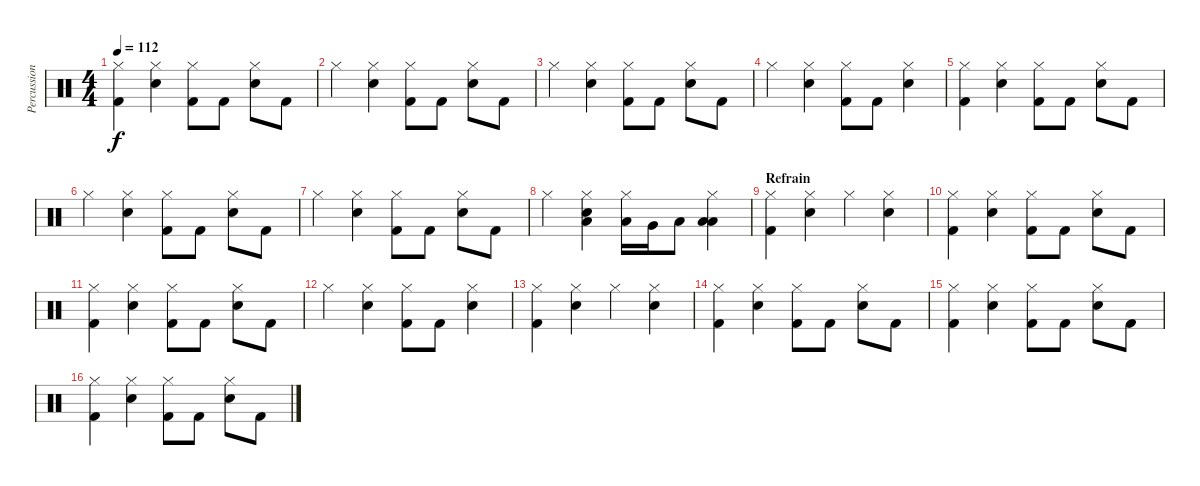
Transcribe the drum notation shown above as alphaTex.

\track ("Percussions" "Percussion") {instrument percussion}
\staff {score}
\articulation defaults
\ts (4 4)
\tempo 112
\clef neutral
\ks c
("Hi-Hat (closed)" "Kick (hit) 2").4{dy f} ("Hi-Hat (closed)" "Snare (hit) 2").4 ("Hi-Hat (closed)" "Kick (hit) 2").8 "Kick (hit) 2".8 ("Hi-Hat (closed)" "Snare (hit) 2").8 "Kick (hit) 2".8 |
"Hi-Hat (closed)".4 ("Hi-Hat (closed)" "Snare (hit) 2").4 ("Hi-Hat (closed)" "Kick (hit) 2").8 "Kick (hit) 2".8 ("Hi-Hat (closed)" "Snare (hit) 2").8 "Kick (hit) 2".8 |
"Hi-Hat (closed)".4 ("Hi-Hat (closed)" "Snare (hit) 2").4 ("Hi-Hat (closed)" "Kick (hit) 2").8 "Kick (hit) 2".8 ("Hi-Hat (closed)" "Snare (hit) 2").8 "Kick (hit) 2".8 |
"Hi-Hat (closed)".4 ("Hi-Hat (closed)" "Snare (hit) 2").4 ("Hi-Hat (closed)" "Kick (hit) 2").8 "Kick (hit) 2".8 ("Hi-Hat (closed)" "Snare (hit) 2").4 |
("Hi-Hat (closed)" "Kick (hit) 2").4 ("Hi-Hat (closed)" "Snare (hit) 2").4 ("Hi-Hat (closed)" "Kick (hit) 2").8 "Kick (hit) 2".8 ("Hi-Hat (closed)" "Snare (hit) 2").8 "Kick (hit) 2".8 |
"Hi-Hat (closed)".4 ("Hi-Hat (closed)" "Snare (hit) 2").4 ("Hi-Hat (closed)" "Kick (hit) 2").8 "Kick (hit) 2".8 ("Hi-Hat (closed)" "Snare (hit) 2").8 "Kick (hit) 2".8 |
"Hi-Hat (closed)".4 ("Hi-Hat (closed)" "Snare (hit) 2").4 ("Hi-Hat (closed)" "Kick (hit) 2").8 "Kick (hit) 2".8 ("Hi-Hat (closed)" "Snare (hit) 2").8 "Kick (hit) 2".8 |
"Hi-Hat (closed)".4 ("Hi-Hat (closed)" "Snare (hit) 2" "Low Floor Tom (hit)").4 ("Hi-Hat (closed)" "Low Tom (hit)").16 "Very Low Tom (hit)".16 "Low Floor Tom (hit)".8 ("Hi-Hat (closed)" "Low Tom (hit)" "Low Floor Tom (hit)").4 |
\section ("" "Refrain")
("Hi-Hat (closed)" "Kick (hit) 2").4 ("Hi-Hat (closed)" "Snare (hit) 2").4 "Hi-Hat (closed)".4 ("Hi-Hat (closed)" "Snare (hit) 2").4 |
("Hi-Hat (closed)" "Kick (hit) 2").4 ("Hi-Hat (closed)" "Snare (hit) 2").4 ("Hi-Hat (closed)" "Kick (hit) 2").8 "Kick (hit) 2".8 ("Hi-Hat (closed)" "Snare (hit) 2").8 "Kick (hit) 2".8 |
("Hi-Hat (closed)" "Kick (hit) 2").4 ("Hi-Hat (closed)" "Snare (hit) 2").4 ("Hi-Hat (closed)" "Kick (hit) 2").8 "Kick (hit) 2".8 ("Hi-Hat (closed)" "Snare (hit) 2").8 "Kick (hit) 2".8 |
"Hi-Hat (closed)".4 ("Hi-Hat (closed)" "Snare (hit) 2").4 ("Hi-Hat (closed)" "Kick (hit) 2").8 "Kick (hit) 2".8 ("Hi-Hat (closed)" "Snare (hit) 2").4 |
("Hi-Hat (closed)" "Kick (hit) 2").4 ("Hi-Hat (closed)" "Snare (hit) 2").4 "Hi-Hat (closed)".4 ("Hi-Hat (closed)" "Snare (hit) 2").4 |
("Hi-Hat (closed)" "Kick (hit) 2").4 ("Hi-Hat (closed)" "Snare (hit) 2").4 ("Hi-Hat (closed)" "Kick (hit) 2").8 "Kick (hit) 2".8 ("Hi-Hat (closed)" "Snare (hit) 2").8 "Kick (hit) 2".8 |
("Hi-Hat (closed)" "Kick (hit) 2").4 ("Hi-Hat (closed)" "Snare (hit) 2").4 ("Hi-Hat (closed)" "Kick (hit) 2").8 "Kick (hit) 2".8 ("Hi-Hat (closed)" "Snare (hit) 2").8 "Kick (hit) 2".8 |
("Hi-Hat (closed)" "Kick (hit) 2").4 ("Hi-Hat (closed)" "Snare (hit) 2").4 ("Hi-Hat (closed)" "Kick (hit) 2").8 "Kick (hit) 2".8 ("Hi-Hat (closed)" "Snare (hit) 2").8 "Kick (hit) 2".8
